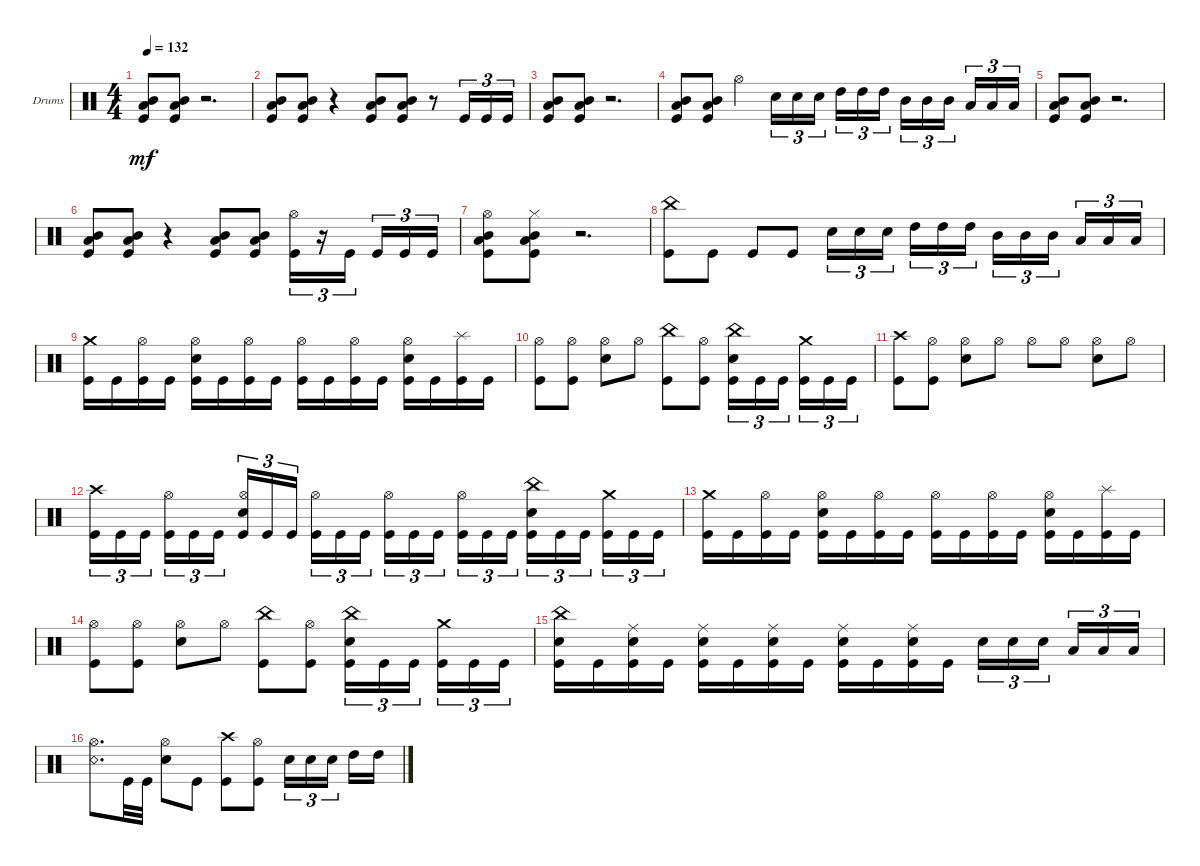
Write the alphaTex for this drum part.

\defaultSystemsLayout 4
\bracketExtendMode groupsimilarinstruments
\firstSystemTrackNameOrientation horizontal
\otherSystemsTrackNameOrientation horizontal
\track ("Drumkit" "Drums") {instrument percussion}
\staff {score}
\articulation defaults
\ts (4 4)
\tempo 132
\clef neutral
\scale
0.333333
\ks c
("Kick (hit)" "Mid Tom (hit)" "Low Tom (hit)").8{dy mf} ("Kick (hit)" "Mid Tom (hit)" "Low Tom (hit)").8 r.2{d} |
\scale
0.333333 ("Kick (hit)" "Mid Tom (hit)" "Low Tom (hit)").8 ("Kick (hit)" "Mid Tom (hit)" "Low Tom (hit)").8 r.4 ("Kick (hit)" "Mid Tom (hit)" "Low Tom (hit)").8 ("Kick (hit)" "Mid Tom (hit)" "Low Tom (hit)").8 r.8 "Kick (hit)".16{tu (3 2)} "Kick (hit)".16{tu (3 2)} "Kick (hit)".16{tu (3 2)} |
\scale
0.333333 ("Kick (hit)" "Mid Tom (hit)" "Low Tom (hit)").8 ("Kick (hit)" "Mid Tom (hit)" "Low Tom (hit)").8 r.2{d} |
\scale
0.333333 ("Kick (hit)" "Mid Tom (hit)" "Low Tom (hit)").8 ("Kick (hit)" "Mid Tom (hit)" "Low Tom (hit)").8 "Hi-Hat (open)".4 "Snare (hit) 2".16{tu (3 2)} "Snare (hit) 2".16{tu (3 2)} "Snare (hit) 2".16{tu (3 2)} "High Tom (hit)".16{tu (3 2)} "High Tom (hit)".16{tu (3 2)} "High Tom (hit)".16{tu (3 2)} "Mid Tom (hit)".16{tu (3 2)} "Mid Tom (hit)".16{tu (3 2)} "Mid Tom (hit)".16{tu (3 2)} "Low Tom (hit)".16{tu (3 2)} "Low Tom (hit)".16{tu (3 2)} "Low Tom (hit)".16{tu (3 2)} |
\scale
0.333333 ("Kick (hit)" "Mid Tom (hit)" "Low Tom (hit)").8 ("Kick (hit)" "Mid Tom (hit)" "Low Tom (hit)").8 r.2{d} |
\scale
0.333333 ("Kick (hit)" "Mid Tom (hit)" "Low Tom (hit)").8 ("Kick (hit)" "Mid Tom (hit)" "Low Tom (hit)").8 r.4 ("Kick (hit)" "Mid Tom (hit)" "Low Tom (hit)").8 ("Kick (hit)" "Mid Tom (hit)" "Low Tom (hit)").8 ("Kick (hit)" "Hi-Hat (open)").16{tu (3 2)} r.16{tu (3 2)} "Kick (hit)".16{tu (3 2)} "Kick (hit)".16{tu (3 2)} "Kick (hit)".16{tu (3 2)} "Kick (hit)".16{tu (3 2)} |
\scale
0.333333 ("Kick (hit)" "Mid Tom (hit)" "Low Tom (hit)" "Hi-Hat (open)").8 ("Kick (hit)" "Mid Tom (hit)" "Low Tom (hit)" "Hi-Hat (closed)").8 r.2{d} |
\scale
0.333333 ("Kick (hit)" "China (hit)").8 "Kick (hit)".8 "Kick (hit)".8 "Kick (hit)".8 "Snare (hit) 2".16{tu (3 2)} "Snare (hit) 2".16{tu (3 2)} "Snare (hit) 2".16{tu (3 2)} "High Tom (hit)".16{tu (3 2)} "High Tom (hit)".16{tu (3 2)} "High Tom (hit)".16{tu (3 2)} "Mid Tom (hit)".16{tu (3 2)} "Mid Tom (hit)".16{tu (3 2)} "Mid Tom (hit)".16{tu (3 2)} "Low Tom (hit)".16{tu (3 2)} "Low Tom (hit)".16{tu (3 2)} "Low Tom (hit)".16{tu (3 2)} |
\scale
0.333333 ("Kick (hit)" "Crash medium (hit)").16 "Kick (hit)".16 ("Kick (hit)" "Hi-Hat (open)").16 "Kick (hit)".16 ("Kick (hit)" "Snare (hit) 2" "Hi-Hat (open)").16 "Kick (hit)".16 ("Kick (hit)" "Hi-Hat (open)").16 "Kick (hit)".16 ("Kick (hit)" "Hi-Hat (open)").16 "Kick (hit)".16 ("Kick (hit)" "Hi-Hat (open)").16 "Kick (hit)".16 ("Kick (hit)" "Snare (hit) 2" "Hi-Hat (open)").16 "Kick (hit)".16 ("Kick (hit)" "Splash (hit)").16 "Kick (hit)".16 |
\scale
0.333333 ("Hi-Hat (open)" "Kick (hit)").8 ("Hi-Hat (open)" "Kick (hit)").8 ("Hi-Hat (open)" "Snare (hit) 2").8 "Hi-Hat (open)".8 ("Kick (hit)" "China (hit)").8 ("Hi-Hat (open)" "Kick (hit)").8 ("Kick (hit)" "Snare (hit) 2" "China (hit)").16{tu (3 2)} "Kick (hit)".16{tu (3 2)} "Kick (hit)".16{tu (3 2)} ("Kick (hit)" "Crash medium (hit)").16{tu (3 2)} "Kick (hit)".16{tu (3 2)} "Kick (hit)".16{tu (3 2)} |
\scale
0.333333 ("Kick (hit)" "Crash high (hit)").8 ("Hi-Hat (open)" "Kick (hit)").8 ("Hi-Hat (open)" "Snare (hit) 2").8 "Hi-Hat (open)".8 "Hi-Hat (open)".8 "Hi-Hat (open)".8 ("Hi-Hat (open)" "Snare (hit) 2").8 "Hi-Hat (open)".8 |
\scale
0.333333 ("Kick (hit)" "Crash high (hit)").16{tu (3 2)} "Kick (hit)".16{tu (3 2)} "Kick (hit)".16{tu (3 2)} ("Kick (hit)" "Hi-Hat (open)").16{tu (3 2)} "Kick (hit)".16{tu (3 2)} "Kick (hit)".16{tu (3 2)} ("Kick (hit)" "Snare (hit) 2" "Hi-Hat (open)").16{tu (3 2)} "Kick (hit)".16{tu (3 2)} "Kick (hit)".16{tu (3 2)} ("Kick (hit)" "Hi-Hat (open)").16{tu (3 2)} "Kick (hit)".16{tu (3 2)} "Kick (hit)".16{tu (3 2)} ("Kick (hit)" "Hi-Hat (open)").16{tu (3 2)} "Kick (hit)".16{tu (3 2)} "Kick (hit)".16{tu (3 2)} ("Kick (hit)" "Hi-Hat (open)").16{tu (3 2)} "Kick (hit)".16{tu (3 2)} "Kick (hit)".16{tu (3 2)} ("Kick (hit)" "Snare (hit) 2" "China (hit)").16{tu (3 2)} "Kick (hit)".16{tu (3 2)} "Kick (hit)".16{tu (3 2)} ("Kick (hit)" "Crash medium (hit)").16{tu (3 2)} "Kick (hit)".16{tu (3 2)} "Kick (hit)".16{tu (3 2)} |
\scale
0.333333 ("Kick (hit)" "Crash medium (hit)").16 "Kick (hit)".16 ("Kick (hit)" "Hi-Hat (open)").16 "Kick (hit)".16 ("Kick (hit)" "Snare (hit) 2" "Hi-Hat (open)").16 "Kick (hit)".16 ("Kick (hit)" "Hi-Hat (open)").16 "Kick (hit)".16 ("Kick (hit)" "Hi-Hat (open)").16 "Kick (hit)".16 ("Kick (hit)" "Hi-Hat (open)").16 "Kick (hit)".16 ("Kick (hit)" "Snare (hit) 2" "Hi-Hat (open)").16 "Kick (hit)".16 ("Kick (hit)" "Splash (hit)").16 "Kick (hit)".16 |
\scale
0.333333 ("Hi-Hat (open)" "Kick (hit)").8 ("Hi-Hat (open)" "Kick (hit)").8 ("Hi-Hat (open)" "Snare (hit) 2").8 "Hi-Hat (open)".8 ("Kick (hit)" "China (hit)").8 ("Hi-Hat (open)" "Kick (hit)").8 ("Kick (hit)" "Snare (hit) 2" "China (hit)").16{tu (3 2)} "Kick (hit)".16{tu (3 2)} "Kick (hit)".16{tu (3 2)} ("Kick (hit)" "Crash medium (hit)").16{tu (3 2)} "Kick (hit)".16{tu (3 2)} "Kick (hit)".16{tu (3 2)} |
\scale
0.333333 ("Kick (hit)" "Snare (hit) 2" "China (hit)").16 "Kick (hit)".16 ("Kick (hit)" "Ride (middle)" "Snare (hit) 2").16 "Kick (hit)".16 ("Kick (hit)" "Snare (hit) 2" "Ride (middle)").16 "Kick (hit)".16 ("Kick (hit)" "Ride (middle)" "Snare (hit) 2").16 "Kick (hit)".16 ("Kick (hit)" "Ride (middle)" "Snare (hit) 2").16 "Kick (hit)".16 ("Kick (hit)" "Ride (middle)" "Snare (hit) 2").16 "Kick (hit)".16 "Snare (hit) 2".16{tu (3 2)} "Snare (hit) 2".16{tu (3 2)} "Snare (hit) 2".16{tu (3 2)} "Low Tom (hit)".16{tu (3 2)} "Low Tom (hit)".16{tu (3 2)} "Low Tom (hit)".16{tu (3 2)} |
\scale
0.333333 ("Snare (rim shot)" "Hi-Hat (open)").8{d} "Kick (hit)".32 "Kick (hit)".32 ("Snare (hit) 2" "Hi-Hat (open)").8 "Kick (hit)".8 ("Kick (hit)" "Crash high (hit)").8 ("Kick (hit)" "Hi-Hat (open)").8 "Snare (hit) 2".16{tu (3 2)} "Snare (hit) 2".16{tu (3 2)} "Snare (hit) 2".16{tu (3 2)} "High Tom (hit)".16 "High Tom (hit)".16
